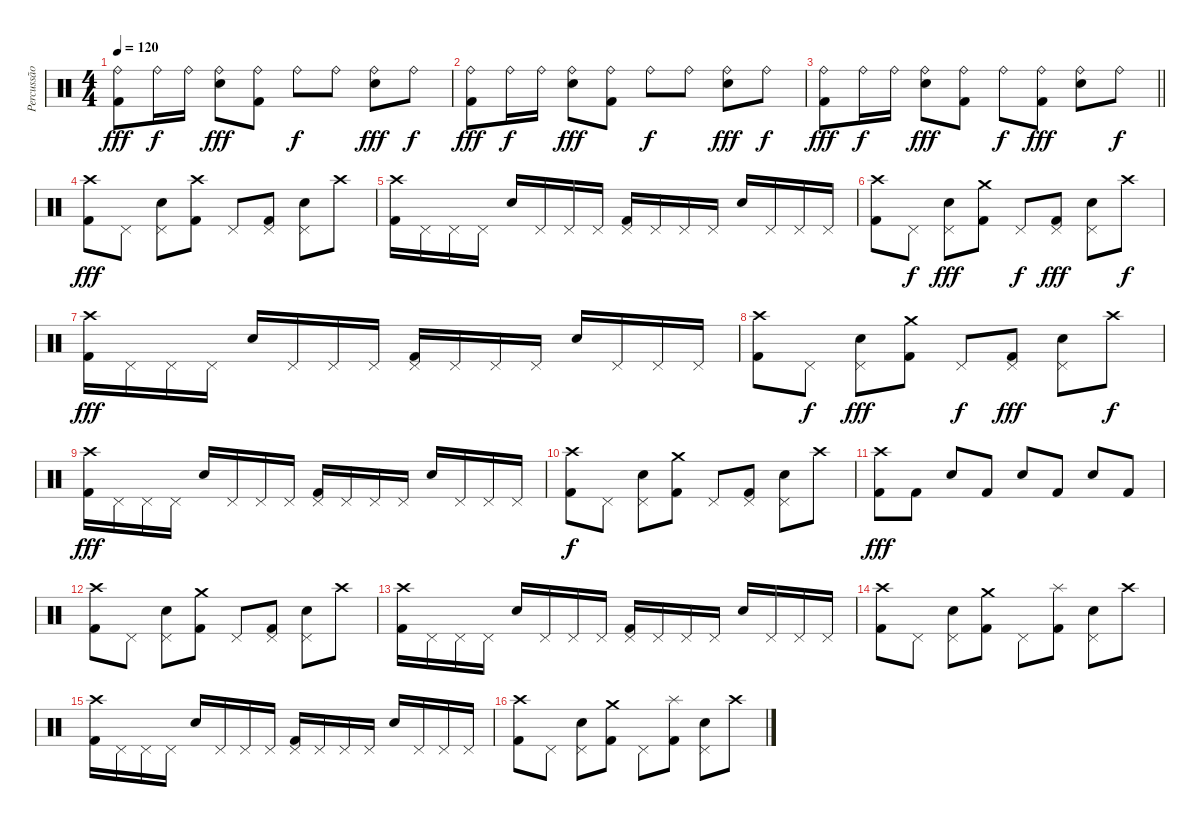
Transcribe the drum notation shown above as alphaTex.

\track ("Percussão" "Percussão") {instrument percussion}
\staff {score}
\articulation defaults
\ts (4 4)
\tempo 120
\clef neutral
\ks c
("Ride (bell)" "Kick (hit) 2").8{dy fff} "Ride (bell)".16{dy f} "Ride (bell)".16 ("Ride (bell)" "Electric Snare (hit)").8{dy fff} ("Ride (bell)" "Kick (hit) 2").8 "Ride (bell)".8{dy f} "Ride (bell)".8 ("Ride (bell)" "Electric Snare (hit)").8{dy fff} "Ride (bell)".8{dy f} |
("Ride (bell)" "Kick (hit) 2").8{dy fff} "Ride (bell)".16{dy f} "Ride (bell)".16 ("Ride (bell)" "Electric Snare (hit)").8{dy fff} ("Ride (bell)" "Kick (hit) 2").8 "Ride (bell)".8{dy f} "Ride (bell)".8 ("Ride (bell)" "Electric Snare (hit)").8{dy fff} "Ride (bell)".8{dy f} |
\barLineRight lightlight
("Ride (bell)" "Kick (hit) 2").8{dy fff} "Ride (bell)".16{dy f} "Ride (bell)".16 ("Ride (bell)" "Electric Snare (hit)").8{dy fff} ("Ride (bell)" "Kick (hit) 2").8 "Ride (bell)".8{dy f} ("Ride (bell)" "Kick (hit) 2").8{dy fff} ("Ride (bell)" "Electric Snare (hit)").8 "Ride (bell)".8{dy f} |
("Crash high (hit)" "Kick (hit) 2").8{dy fff} "Pedal Hi-Hat (hit)".8 ("Pedal Hi-Hat (hit)" "Electric Snare (hit)").8 ("Crash high (hit)" "Kick (hit) 2").8 "Pedal Hi-Hat (hit)".8 ("Pedal Hi-Hat (hit)" "Kick (hit) 2").8 ("Pedal Hi-Hat (hit)" "Electric Snare (hit)").8 "Crash high (hit)".8 |
("Crash high (hit)" "Kick (hit) 2").16 "Pedal Hi-Hat (hit)".16 "Pedal Hi-Hat (hit)".16 "Pedal Hi-Hat (hit)".16 "Electric Snare (hit)".16 "Pedal Hi-Hat (hit)".16 "Pedal Hi-Hat (hit)".16 "Pedal Hi-Hat (hit)".16 ("Pedal Hi-Hat (hit)" "Kick (hit) 2").16 "Pedal Hi-Hat (hit)".16 "Pedal Hi-Hat (hit)".16 "Pedal Hi-Hat (hit)".16 "Electric Snare (hit)".16 "Pedal Hi-Hat (hit)".16 "Pedal Hi-Hat (hit)".16 "Pedal Hi-Hat (hit)".16 |
("Crash high (hit)" "Kick (hit) 2").8 "Pedal Hi-Hat (hit)".8{dy f} ("Pedal Hi-Hat (hit)" "Electric Snare (hit)").8{dy fff} ("Crash medium (hit)" "Kick (hit) 2").8 "Pedal Hi-Hat (hit)".8{dy f} ("Pedal Hi-Hat (hit)" "Kick (hit) 2").8{dy fff} ("Pedal Hi-Hat (hit)" "Electric Snare (hit)").8 "Crash high (hit)".8{dy f} |
("Crash high (hit)" "Kick (hit) 2").16{dy fff} "Pedal Hi-Hat (hit)".16 "Pedal Hi-Hat (hit)".16 "Pedal Hi-Hat (hit)".16 "Electric Snare (hit)".16 "Pedal Hi-Hat (hit)".16 "Pedal Hi-Hat (hit)".16 "Pedal Hi-Hat (hit)".16 ("Pedal Hi-Hat (hit)" "Kick (hit) 2").16 "Pedal Hi-Hat (hit)".16 "Pedal Hi-Hat (hit)".16 "Pedal Hi-Hat (hit)".16 "Electric Snare (hit)".16 "Pedal Hi-Hat (hit)".16 "Pedal Hi-Hat (hit)".16 "Pedal Hi-Hat (hit)".16 |
("Crash high (hit)" "Kick (hit) 2").8 "Pedal Hi-Hat (hit)".8{dy f} ("Pedal Hi-Hat (hit)" "Electric Snare (hit)").8{dy fff} ("Crash medium (hit)" "Kick (hit) 2").8 "Pedal Hi-Hat (hit)".8{dy f} ("Pedal Hi-Hat (hit)" "Kick (hit) 2").8{dy fff} ("Pedal Hi-Hat (hit)" "Electric Snare (hit)").8 "Crash high (hit)".8{dy f} |
("Crash high (hit)" "Kick (hit) 2").16{dy fff} "Pedal Hi-Hat (hit)".16 "Pedal Hi-Hat (hit)".16 "Pedal Hi-Hat (hit)".16 "Electric Snare (hit)".16 "Pedal Hi-Hat (hit)".16 "Pedal Hi-Hat (hit)".16 "Pedal Hi-Hat (hit)".16 ("Pedal Hi-Hat (hit)" "Kick (hit) 2").16 "Pedal Hi-Hat (hit)".16 "Pedal Hi-Hat (hit)".16 "Pedal Hi-Hat (hit)".16 "Electric Snare (hit)".16 "Pedal Hi-Hat (hit)".16 "Pedal Hi-Hat (hit)".16 "Pedal Hi-Hat (hit)".16 |
("Crash high (hit)" "Kick (hit) 2").8{dy f} "Pedal Hi-Hat (hit)".8 ("Pedal Hi-Hat (hit)" "Electric Snare (hit)").8 ("Crash medium (hit)" "Kick (hit) 2").8 "Pedal Hi-Hat (hit)".8 ("Pedal Hi-Hat (hit)" "Kick (hit) 2").8 ("Pedal Hi-Hat (hit)" "Electric Snare (hit)").8 "Crash high (hit)".8 |
("Crash high (hit)" "Kick (hit) 2").8{dy fff} "Kick (hit) 2".8 "Electric Snare (hit)".8 "Kick (hit) 2".8 "Electric Snare (hit)".8 "Kick (hit) 2".8 "Electric Snare (hit)".8 "Kick (hit) 2".8 |
("Crash high (hit)" "Kick (hit) 2").8 "Pedal Hi-Hat (hit)".8 ("Pedal Hi-Hat (hit)" "Electric Snare (hit)").8 ("Crash medium (hit)" "Kick (hit) 2").8 "Pedal Hi-Hat (hit)".8 ("Pedal Hi-Hat (hit)" "Kick (hit) 2").8 ("Pedal Hi-Hat (hit)" "Electric Snare (hit)").8 "Crash high (hit)".8 |
("Crash high (hit)" "Kick (hit) 2").16 "Pedal Hi-Hat (hit)".16 "Pedal Hi-Hat (hit)".16 "Pedal Hi-Hat (hit)".16 "Electric Snare (hit)".16 "Pedal Hi-Hat (hit)".16 "Pedal Hi-Hat (hit)".16 "Pedal Hi-Hat (hit)".16 ("Pedal Hi-Hat (hit)" "Kick (hit) 2").16 "Pedal Hi-Hat (hit)".16 "Pedal Hi-Hat (hit)".16 "Pedal Hi-Hat (hit)".16 "Electric Snare (hit)".16 "Pedal Hi-Hat (hit)".16 "Pedal Hi-Hat (hit)".16 "Pedal Hi-Hat (hit)".16 |
("Crash high (hit)" "Kick (hit) 2").8 "Pedal Hi-Hat (hit)".8 ("Pedal Hi-Hat (hit)" "Electric Snare (hit)").8 ("Crash medium (hit)" "Kick (hit) 2").8 "Pedal Hi-Hat (hit)".8 ("Splash (hit)" "Kick (hit) 2").8 ("Pedal Hi-Hat (hit)" "Electric Snare (hit)").8 "Crash high (hit)".8 |
("Crash high (hit)" "Kick (hit) 2").16 "Pedal Hi-Hat (hit)".16 "Pedal Hi-Hat (hit)".16 "Pedal Hi-Hat (hit)".16 "Electric Snare (hit)".16 "Pedal Hi-Hat (hit)".16 "Pedal Hi-Hat (hit)".16 "Pedal Hi-Hat (hit)".16 ("Pedal Hi-Hat (hit)" "Kick (hit) 2").16 "Pedal Hi-Hat (hit)".16 "Pedal Hi-Hat (hit)".16 "Pedal Hi-Hat (hit)".16 "Electric Snare (hit)".16 "Pedal Hi-Hat (hit)".16 "Pedal Hi-Hat (hit)".16 "Pedal Hi-Hat (hit)".16 |
("Crash high (hit)" "Kick (hit) 2").8 "Pedal Hi-Hat (hit)".8 ("Pedal Hi-Hat (hit)" "Electric Snare (hit)").8 ("Crash medium (hit)" "Kick (hit) 2").8 "Pedal Hi-Hat (hit)".8 ("Splash (hit)" "Kick (hit) 2").8 ("Pedal Hi-Hat (hit)" "Electric Snare (hit)").8 "Crash high (hit)".8
